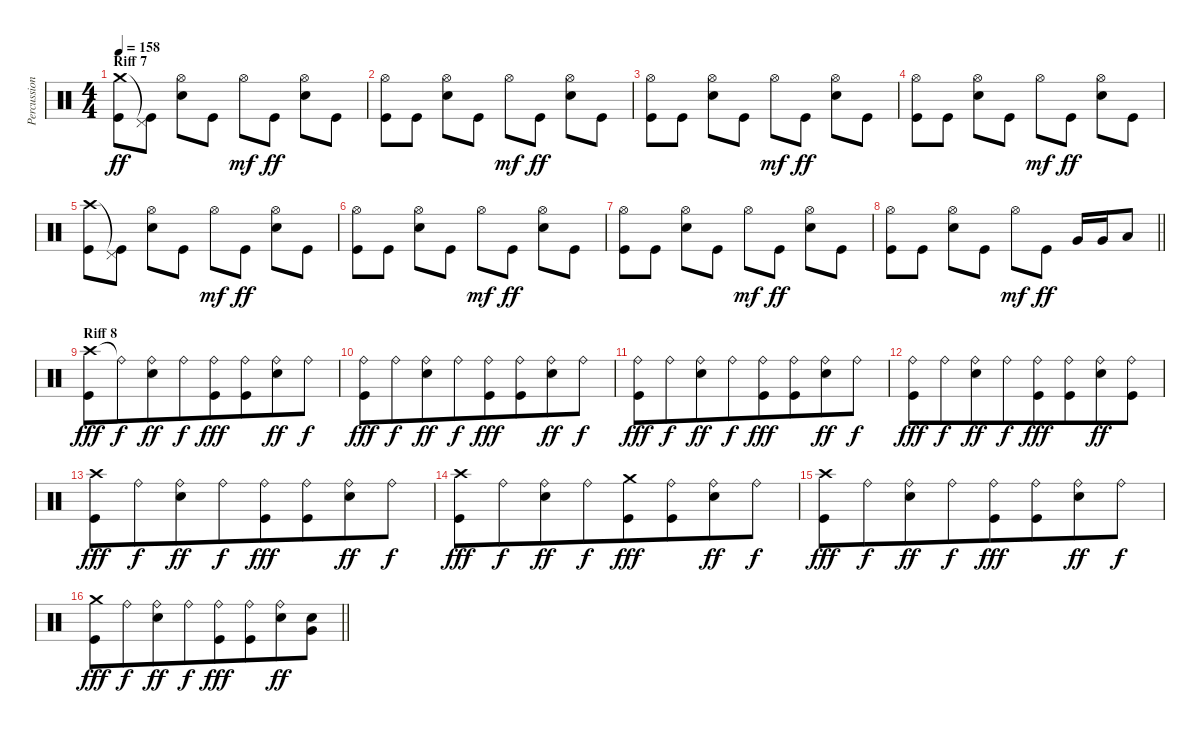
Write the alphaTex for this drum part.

\track ("Percussions" "Percussion") {instrument percussion}
\staff {score}
\articulation defaults
\ts (4 4)
\section ("" "Riff 7")
\tempo 158
\clef neutral
\ks c
("Crash medium (hit)" "Kick (hit)").8{dy ff} ("Pedal Hi-Hat (hit)"{t} "Kick (hit)").8{beam split} ("Hi-Hat (open)" "Electric Snare (hit)").8 "Kick (hit)".8{beam split} "Hi-Hat (open)".8{dy mf} "Kick (hit)".8{dy ff} ("Hi-Hat (open)" "Electric Snare (hit)").8 "Kick (hit)".8 |
("Hi-Hat (open)" "Kick (hit)").8 "Kick (hit)".8{beam split} ("Hi-Hat (open)" "Electric Snare (hit)").8 "Kick (hit)".8{beam split} "Hi-Hat (open)".8{dy mf} "Kick (hit)".8{dy ff} ("Hi-Hat (open)" "Electric Snare (hit)").8 "Kick (hit)".8 |
("Hi-Hat (open)" "Kick (hit)").8 "Kick (hit)".8{beam split} ("Hi-Hat (open)" "Electric Snare (hit)").8 "Kick (hit)".8{beam split} "Hi-Hat (open)".8{dy mf} "Kick (hit)".8{dy ff} ("Hi-Hat (open)" "Electric Snare (hit)").8 "Kick (hit)".8 |
("Hi-Hat (open)" "Kick (hit)").8 "Kick (hit)".8{beam split} ("Hi-Hat (open)" "Electric Snare (hit)").8 "Kick (hit)".8{beam split} "Hi-Hat (open)".8{dy mf} "Kick (hit)".8{dy ff} ("Hi-Hat (open)" "Electric Snare (hit)").8 "Kick (hit)".8 |
("Crash high (hit)" "Kick (hit)").8 ("Pedal Hi-Hat (hit)"{t} "Kick (hit)").8{beam split} ("Hi-Hat (open)" "Electric Snare (hit)").8 "Kick (hit)".8{beam split} "Hi-Hat (open)".8{dy mf} "Kick (hit)".8{dy ff} ("Hi-Hat (open)" "Electric Snare (hit)").8 "Kick (hit)".8 |
("Hi-Hat (open)" "Kick (hit)").8 "Kick (hit)".8{beam split} ("Hi-Hat (open)" "Electric Snare (hit)").8 "Kick (hit)".8{beam split} "Hi-Hat (open)".8{dy mf} "Kick (hit)".8{dy ff} ("Hi-Hat (open)" "Electric Snare (hit)").8 "Kick (hit)".8 |
("Hi-Hat (open)" "Kick (hit)").8 "Kick (hit)".8{beam split} ("Hi-Hat (open)" "Electric Snare (hit)").8 "Kick (hit)".8{beam split} "Hi-Hat (open)".8{dy mf} "Kick (hit)".8{dy ff} ("Hi-Hat (open)" "Electric Snare (hit)").8 "Kick (hit)".8 |
\barLineRight lightlight
("Hi-Hat (open)" "Kick (hit)").8 "Kick (hit)".8{beam split} ("Hi-Hat (open)" "Electric Snare (hit)").8 "Kick (hit)".8{beam split} "Hi-Hat (open)".8{dy mf} "Kick (hit)".8{dy ff beam split} "Very Low Tom (hit)".16{beam merge} "Very Low Tom (hit)".16{beam merge} "Low Floor Tom (hit)".8 |
\section ("" "Riff 8")
("Crash high (hit)" "Kick (hit)").8{dy fff beam merge} "Ride (bell)"{t}.8{dy f beam merge} ("Ride (bell)" "Electric Snare (hit)").8{dy ff beam merge} "Ride (bell)".8{dy f beam merge} ("Ride (bell)" "Kick (hit)").8{dy fff beam merge} ("Ride (bell)" "Kick (hit)").8{beam merge} ("Ride (bell)" "Electric Snare (hit)").8{dy ff beam merge} "Ride (bell)".8{dy f} |
("Ride (bell)" "Kick (hit)").8{dy fff beam merge} "Ride (bell)".8{dy f beam merge} ("Ride (bell)" "Electric Snare (hit)").8{dy ff beam merge} "Ride (bell)".8{dy f beam merge} ("Ride (bell)" "Kick (hit)").8{dy fff beam merge} ("Ride (bell)" "Kick (hit)").8{beam merge} ("Ride (bell)" "Electric Snare (hit)").8{dy ff beam merge} "Ride (bell)".8{dy f} |
("Ride (bell)" "Kick (hit)").8{dy fff beam merge} "Ride (bell)".8{dy f beam merge} ("Ride (bell)" "Electric Snare (hit)").8{dy ff beam merge} "Ride (bell)".8{dy f beam merge} ("Ride (bell)" "Kick (hit)").8{dy fff beam merge} ("Ride (bell)" "Kick (hit)").8{beam merge} ("Ride (bell)" "Electric Snare (hit)").8{dy ff beam merge} "Ride (bell)".8{dy f} |
("Ride (bell)" "Kick (hit)").8{dy fff beam merge} "Ride (bell)".8{dy f beam merge} ("Ride (bell)" "Electric Snare (hit)").8{dy ff beam merge} "Ride (bell)".8{dy f beam merge} ("Ride (bell)" "Kick (hit)").8{dy fff beam merge} ("Ride (bell)" "Kick (hit)").8{beam merge} ("Ride (bell)" "Electric Snare (hit)").8{dy ff beam merge} ("Ride (bell)" "Kick (hit)").8 |
("Crash high (hit)" "Kick (hit)").8{dy fff beam merge} "Ride (bell)".8{dy f beam merge} ("Ride (bell)" "Electric Snare (hit)").8{dy ff beam merge} "Ride (bell)".8{dy f beam merge} ("Ride (bell)" "Kick (hit)").8{dy fff beam merge} ("Ride (bell)" "Kick (hit)").8{beam merge} ("Ride (bell)" "Electric Snare (hit)").8{dy ff beam merge} "Ride (bell)".8{dy f} |
("Crash high (hit)" "Kick (hit)").8{dy fff beam merge} "Ride (bell)".8{dy f beam merge} ("Ride (bell)" "Electric Snare (hit)").8{dy ff beam merge} "Ride (bell)".8{dy f beam merge} ("Crash medium (hit)" "Kick (hit)").8{dy fff beam merge} ("Ride (bell)" "Kick (hit)").8{beam merge} ("Ride (bell)" "Electric Snare (hit)").8{dy ff beam merge} "Ride (bell)".8{dy f} |
("Crash high (hit)" "Kick (hit)").8{dy fff beam merge} "Ride (bell)".8{dy f beam merge} ("Ride (bell)" "Electric Snare (hit)").8{dy ff beam merge} "Ride (bell)".8{dy f beam merge} ("Ride (bell)" "Kick (hit)").8{dy fff beam merge} ("Ride (bell)" "Kick (hit)").8{beam merge} ("Ride (bell)" "Electric Snare (hit)").8{dy ff beam merge} "Ride (bell)".8{dy f} |
\barLineRight lightlight
("Crash medium (hit)" "Kick (hit)").8{dy fff beam merge} "Ride (bell)".8{dy f beam merge} ("Ride (bell)" "Electric Snare (hit)").8{dy ff beam merge} "Ride (bell)".8{dy f beam merge} ("Ride (bell)" "Kick (hit)").8{dy fff beam merge} ("Ride (bell)" "Kick (hit)").8{beam merge} ("Ride (bell)" "Electric Snare (hit)").8{dy ff beam merge} ("Electric Snare (hit)" "Very Low Tom (hit)").8
